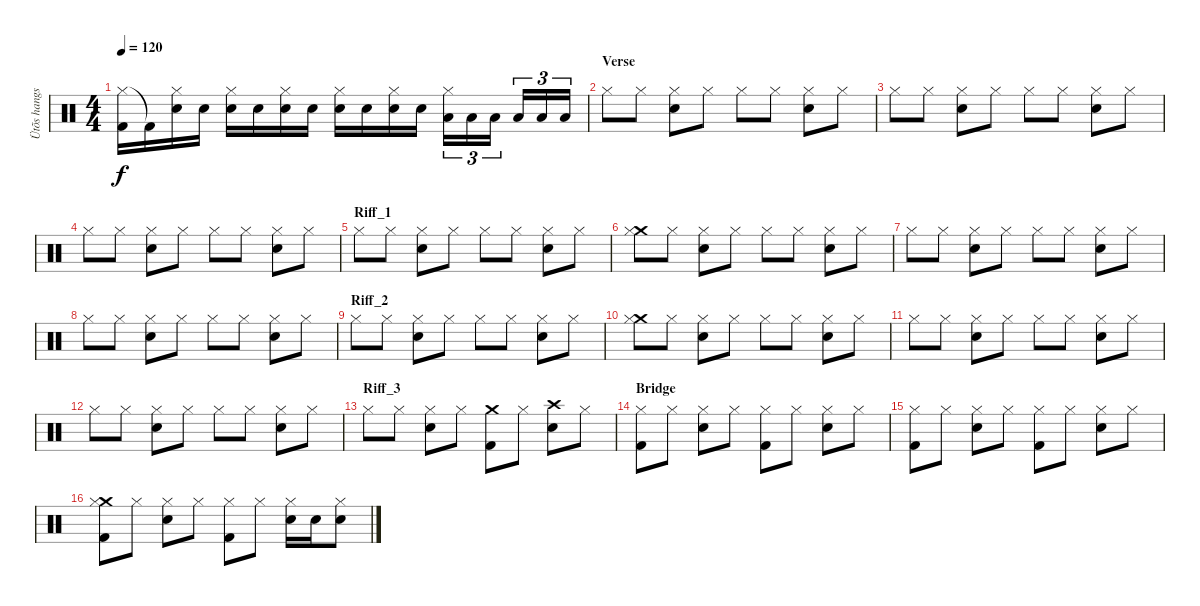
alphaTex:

\track ("Ütõs hangszer" "Ütõs hangs") {instrument percussion}
\staff {score}
\articulation defaults
\ts (4 4)
\tempo 120
\clef neutral
\ks c
("Hi-Hat (closed)" "Kick (hit) 2").16{dy f} "Kick (hit) 2"{t}.16 ("Hi-Hat (closed)" "Snare (hit) 2").16{volume 4} "Snare (hit) 2".16{volume 5} ("Hi-Hat (closed)" "Snare (hit) 2").16{volume 6} "Snare (hit) 2".16{volume 7} ("Hi-Hat (closed)" "Snare (hit) 2").16{volume 8} "Snare (hit) 2".16{volume 9} ("Hi-Hat (closed)" "Snare (hit) 2").16{volume 10} "Snare (hit) 2".16{volume 11} ("Hi-Hat (closed)" "Snare (hit) 2").16{volume 13} "Snare (hit) 2".16 ("Hi-Hat (closed)" "Low Tom (hit)").16{tu (3 2)} "Low Floor Tom (hit)".16{tu (3 2)} "Low Floor Tom (hit)".16{tu (3 2)} "Low Tom (hit)".16{tu (3 2)} "Low Floor Tom (hit)".16{tu (3 2)} "Low Floor Tom (hit)".16{tu (3 2)} |
\section ("" "Verse")
"Hi-Hat (closed)".8 "Hi-Hat (closed)".8 ("Hi-Hat (closed)" "Snare (hit) 2").8 "Hi-Hat (closed)".8 "Hi-Hat (closed)".8 "Hi-Hat (closed)".8 ("Hi-Hat (closed)" "Snare (hit) 2").8 "Hi-Hat (closed)".8 |
"Hi-Hat (closed)".8 "Hi-Hat (closed)".8 ("Hi-Hat (closed)" "Snare (hit) 2").8 "Hi-Hat (closed)".8 "Hi-Hat (closed)".8 "Hi-Hat (closed)".8 ("Hi-Hat (closed)" "Snare (hit) 2").8 "Hi-Hat (closed)".8 |
"Hi-Hat (closed)".8 "Hi-Hat (closed)".8 ("Hi-Hat (closed)" "Snare (hit) 2").8 "Hi-Hat (closed)".8 "Hi-Hat (closed)".8 "Hi-Hat (closed)".8 ("Hi-Hat (closed)" "Snare (hit) 2").8 "Hi-Hat (closed)".8 |
\section ("" "Riff_1")
"Hi-Hat (closed)".8 "Hi-Hat (closed)".8 ("Hi-Hat (closed)" "Snare (hit) 2").8 "Hi-Hat (closed)".8 "Hi-Hat (closed)".8 "Hi-Hat (closed)".8 ("Hi-Hat (closed)" "Snare (hit) 2").8 "Hi-Hat (closed)".8 |
("Crash medium (hit)" "Hi-Hat (closed)").8 "Hi-Hat (closed)".8 ("Hi-Hat (closed)" "Snare (hit) 2").8 "Hi-Hat (closed)".8 "Hi-Hat (closed)".8 "Hi-Hat (closed)".8 ("Hi-Hat (closed)" "Snare (hit) 2").8 "Hi-Hat (closed)".8 |
"Hi-Hat (closed)".8 "Hi-Hat (closed)".8 ("Hi-Hat (closed)" "Snare (hit) 2").8 "Hi-Hat (closed)".8 "Hi-Hat (closed)".8 "Hi-Hat (closed)".8 ("Hi-Hat (closed)" "Snare (hit) 2").8 "Hi-Hat (closed)".8 |
"Hi-Hat (closed)".8 "Hi-Hat (closed)".8 ("Hi-Hat (closed)" "Snare (hit) 2").8 "Hi-Hat (closed)".8 "Hi-Hat (closed)".8 "Hi-Hat (closed)".8 ("Hi-Hat (closed)" "Snare (hit) 2").8 "Hi-Hat (closed)".8 |
\section ("" "Riff_2")
"Hi-Hat (closed)".8 "Hi-Hat (closed)".8 ("Hi-Hat (closed)" "Snare (hit) 2").8 "Hi-Hat (closed)".8 "Hi-Hat (closed)".8 "Hi-Hat (closed)".8 ("Hi-Hat (closed)" "Snare (hit) 2").8 "Hi-Hat (closed)".8 |
("Crash medium (hit)" "Hi-Hat (closed)").8 "Hi-Hat (closed)".8 ("Hi-Hat (closed)" "Snare (hit) 2").8 "Hi-Hat (closed)".8 "Hi-Hat (closed)".8 "Hi-Hat (closed)".8 ("Hi-Hat (closed)" "Snare (hit) 2").8 "Hi-Hat (closed)".8 |
"Hi-Hat (closed)".8 "Hi-Hat (closed)".8 ("Hi-Hat (closed)" "Snare (hit) 2").8 "Hi-Hat (closed)".8 "Hi-Hat (closed)".8 "Hi-Hat (closed)".8 ("Hi-Hat (closed)" "Snare (hit) 2").8 "Hi-Hat (closed)".8 |
"Hi-Hat (closed)".8 "Hi-Hat (closed)".8 ("Hi-Hat (closed)" "Snare (hit) 2").8 "Hi-Hat (closed)".8 "Hi-Hat (closed)".8 "Hi-Hat (closed)".8 ("Hi-Hat (closed)" "Snare (hit) 2").8 "Hi-Hat (closed)".8 |
\section ("" "Riff_3")
"Hi-Hat (closed)".8 "Hi-Hat (closed)".8 ("Hi-Hat (closed)" "Snare (hit) 2").8 "Hi-Hat (closed)".8 ("Crash medium (hit)" "Kick (hit) 2").8 "Hi-Hat (closed)".8 ("Crash high (hit)" "Snare (hit) 2").8 "Hi-Hat (closed)".8 |
\section ("" "Bridge")
("Hi-Hat (closed)" "Kick (hit) 2").8 "Hi-Hat (closed)".8 ("Hi-Hat (closed)" "Snare (hit) 2").8 "Hi-Hat (closed)".8 ("Hi-Hat (closed)" "Kick (hit) 2").8 "Hi-Hat (closed)".8 ("Hi-Hat (closed)" "Snare (hit) 2").8 "Hi-Hat (closed)".8 |
("Hi-Hat (closed)" "Kick (hit) 2").8 "Hi-Hat (closed)".8 ("Hi-Hat (closed)" "Snare (hit) 2").8 "Hi-Hat (closed)".8 ("Hi-Hat (closed)" "Kick (hit) 2").8 "Hi-Hat (closed)".8 ("Hi-Hat (closed)" "Snare (hit) 2").8 "Hi-Hat (closed)".8 |
("Crash medium (hit)" "Hi-Hat (closed)" "Kick (hit) 2").8 "Hi-Hat (closed)".8 ("Hi-Hat (closed)" "Snare (hit) 2").8 "Hi-Hat (closed)".8 ("Hi-Hat (closed)" "Kick (hit) 2").8 "Hi-Hat (closed)".8 ("Hi-Hat (closed)" "Snare (hit) 2").16 "Snare (hit) 2".16 ("Hi-Hat (closed)" "Snare (hit) 2").8
